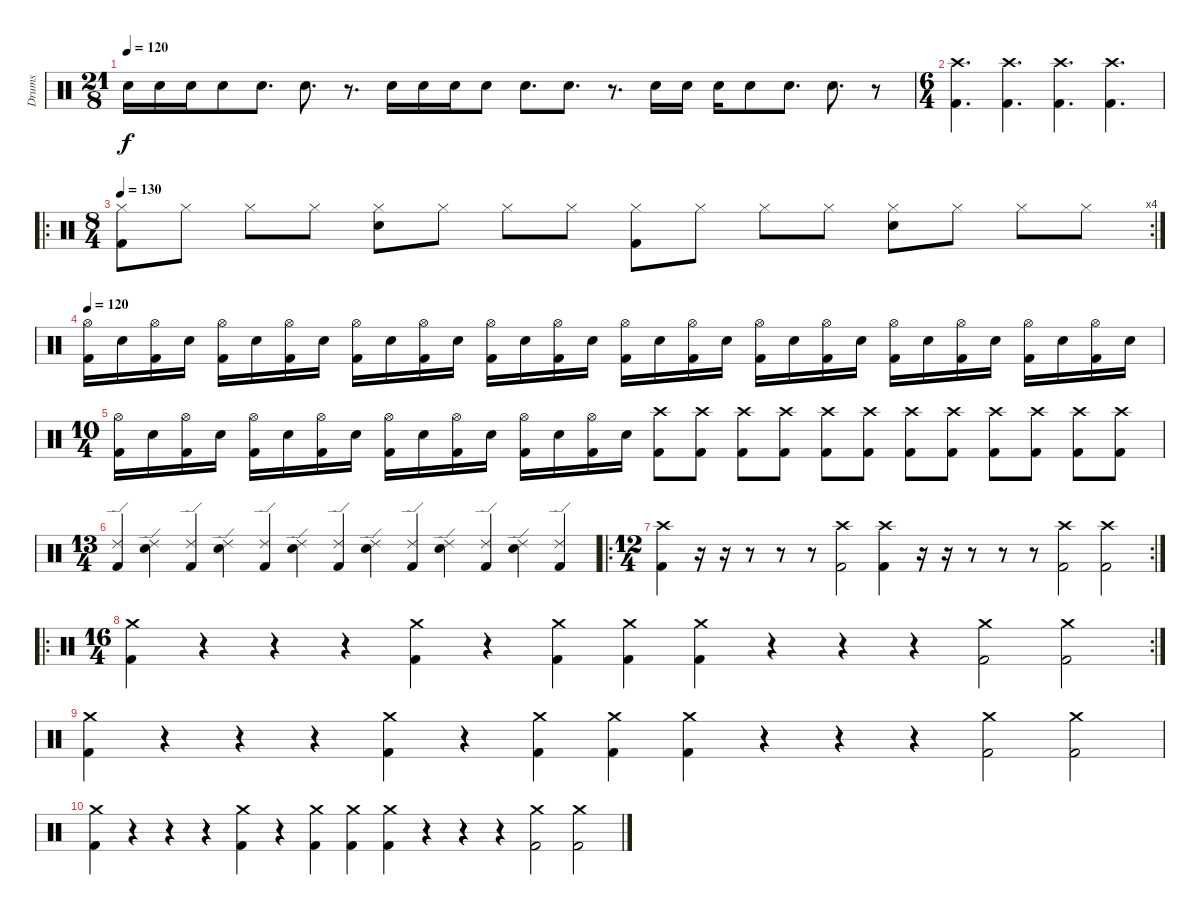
\track ("Drums" "Drums") {instrument percussion}
\staff {score}
\articulation defaults
\ts (21 8)
\tempo 120
\clef neutral
\ks c "Snare (hit) 2".16{dy f} "Snare (hit) 2".16 "Snare (hit) 2".16 "Snare (hit) 2".8 "Snare (hit) 2".8{d} "Snare (hit) 2".8{d}
r.8{d} "Snare (hit) 2".16 "Snare (hit) 2".16 "Snare (hit) 2".16 "Snare (hit) 2".8 "Snare (hit) 2".8{d} "Snare (hit) 2".8{d} r.8{d} "Snare (hit) 2".16 "Snare (hit) 2".16 "Snare (hit) 2".16 "Snare (hit) 2".8 "Snare (hit) 2".8{d} "Snare (hit) 2".8{d} r.8 |
\ts (6 4)
("Crash high (hit)" "Kick (hit) 2").4{d} ("Crash high (hit)" "Kick (hit) 2").4{d} ("Crash high (hit)" "Kick (hit) 2").4{d} ("Crash high (hit)" "Kick (hit) 2").4{d} |
\ro
\rc 4
\ts (8 4)
\tempo 130
("Hi-Hat (closed)" "Kick (hit) 2").8 "Hi-Hat (closed)".8 "Hi-Hat (closed)".8 "Hi-Hat (closed)".8 ("Hi-Hat (closed)" "Snare (hit) 2").8 "Hi-Hat (closed)".8 "Hi-Hat (closed)".8 "Hi-Hat (closed)".8 ("Hi-Hat (closed)" "Kick (hit) 2").8 "Hi-Hat (closed)".8 "Hi-Hat (closed)".8 "Hi-Hat (closed)".8 ("Hi-Hat (closed)" "Snare (hit) 2").8 "Hi-Hat (closed)".8 "Hi-Hat (closed)".8 "Hi-Hat (closed)".8 |
\tempo 120
("Hi-Hat (open)" "Kick (hit) 2").16 "Snare (hit) 2".16 ("Hi-Hat (open)" "Kick (hit) 2").16 "Snare (hit) 2".16 ("Hi-Hat (open)" "Kick (hit) 2").16 "Snare (hit) 2".16 ("Hi-Hat (open)" "Kick (hit) 2").16 "Snare (hit) 2".16 ("Hi-Hat (open)" "Kick (hit) 2").16 "Snare (hit) 2".16 ("Hi-Hat (open)" "Kick (hit) 2").16 "Snare (hit) 2".16 ("Hi-Hat (open)" "Kick (hit) 2").16 "Snare (hit) 2".16 ("Hi-Hat (open)" "Kick (hit) 2").16 "Snare (hit) 2".16 ("Hi-Hat (open)" "Kick (hit) 2").16 "Snare (hit) 2".16 ("Hi-Hat (open)" "Kick (hit) 2").16 "Snare (hit) 2".16 ("Hi-Hat (open)" "Kick (hit) 2").16 "Snare (hit) 2".16 ("Hi-Hat (open)" "Kick (hit) 2").16 "Snare (hit) 2".16 ("Hi-Hat (open)" "Kick (hit) 2").16 "Snare (hit) 2".16 ("Hi-Hat (open)" "Kick (hit) 2").16 "Snare (hit) 2".16 ("Hi-Hat (open)" "Kick (hit) 2").16 "Snare (hit) 2".16 ("Hi-Hat (open)" "Kick (hit) 2").16 "Snare (hit) 2".16 |
\ts (10 4)
("Hi-Hat (open)" "Kick (hit) 2").16 "Snare (hit) 2".16 ("Hi-Hat (open)" "Kick (hit) 2").16 "Snare (hit) 2".16 ("Hi-Hat (open)" "Kick (hit) 2").16 "Snare (hit) 2".16 ("Hi-Hat (open)" "Kick (hit) 2").16 "Snare (hit) 2".16 ("Hi-Hat (open)" "Kick (hit) 2").16 "Snare (hit) 2".16 ("Hi-Hat (open)" "Kick (hit) 2").16 "Snare (hit) 2".16 ("Hi-Hat (open)" "Kick (hit) 2").16 "Snare (hit) 2".16 ("Hi-Hat (open)" "Kick (hit) 2").16 "Snare (hit) 2".16 ("Crash high (hit)" "Kick (hit) 2").8 ("Crash high (hit)" "Kick (hit) 2").8 ("Crash high (hit)" "Kick (hit) 2").8 ("Crash high (hit)" "Kick (hit) 2").8 ("Crash high (hit)" "Kick (hit) 2").8 ("Crash high (hit)" "Kick (hit) 2").8 ("Crash high (hit)" "Kick (hit) 2").8 ("Crash high (hit)" "Kick (hit) 2").8 ("Crash high (hit)" "Kick (hit) 2").8 ("Crash high (hit)" "Kick (hit) 2").8 ("Crash high (hit)" "Kick (hit) 2").8 ("Crash high (hit)" "Kick (hit) 2").8 |
\ts (13 4)
("Ride (edge) 2" "Kick (hit) 2").4 ("Ride (edge) 2" "Snare (hit) 2").4 ("Ride (edge) 2" "Kick (hit) 2").4 ("Ride (edge) 2" "Snare (hit) 2").4 ("Ride (edge) 2" "Kick (hit) 2").4 ("Ride (edge) 2" "Snare (hit) 2").4 ("Ride (edge) 2" "Kick (hit) 2").4 ("Ride (edge) 2" "Snare (hit) 2").4 ("Ride (edge) 2" "Kick (hit) 2").4 ("Ride (edge) 2" "Snare (hit) 2").4 ("Ride (edge) 2" "Kick (hit) 2").4 ("Ride (edge) 2" "Snare (hit) 2").4 ("Ride (edge) 2" "Kick (hit) 2").4 |
\ro
\rc 2
\ts (12 4)
("Crash high (hit)" "Kick (hit) 2").4 r.16 r.16 r.8 r.8 r.8 ("Crash high (hit)" "Kick (hit) 2").2 ("Crash high (hit)" "Kick (hit) 2").4 r.16 r.16 r.8 r.8 r.8 ("Crash high (hit)" "Kick (hit) 2").2 ("Crash high (hit)" "Kick (hit) 2").2 |
\ro
\rc 2
\ts (16 4)
("Crash medium (hit)" "Kick (hit) 2").4 r.4 r.4 r.4 ("Crash medium (hit)" "Kick (hit) 2").4 r.4 ("Crash medium (hit)" "Kick (hit) 2").4 ("Crash medium (hit)" "Kick (hit) 2").4 ("Crash medium (hit)" "Kick (hit) 2").4 r.4 r.4 r.4 ("Crash medium (hit)" "Kick (hit) 2").2 ("Crash medium (hit)" "Kick (hit) 2").2 |
("Crash medium (hit)" "Kick (hit) 2").4 r.4 r.4 r.4 ("Crash medium (hit)" "Kick (hit) 2").4 r.4 ("Crash medium (hit)" "Kick (hit) 2").4 ("Crash medium (hit)" "Kick (hit) 2").4 ("Crash medium (hit)" "Kick (hit) 2").4 r.4 r.4 r.4 ("Crash medium (hit)" "Kick (hit) 2").2 ("Crash medium (hit)" "Kick (hit) 2").2 |
("Crash medium (hit)" "Kick (hit) 2").4 r.4 r.4 r.4 ("Crash medium (hit)" "Kick (hit) 2").4 r.4 ("Crash medium (hit)" "Kick (hit) 2").4 ("Crash medium (hit)" "Kick (hit) 2").4 ("Crash medium (hit)" "Kick (hit) 2").4 r.4 r.4 r.4 ("Crash medium (hit)" "Kick (hit) 2").2 ("Crash medium (hit)" "Kick (hit) 2").2
